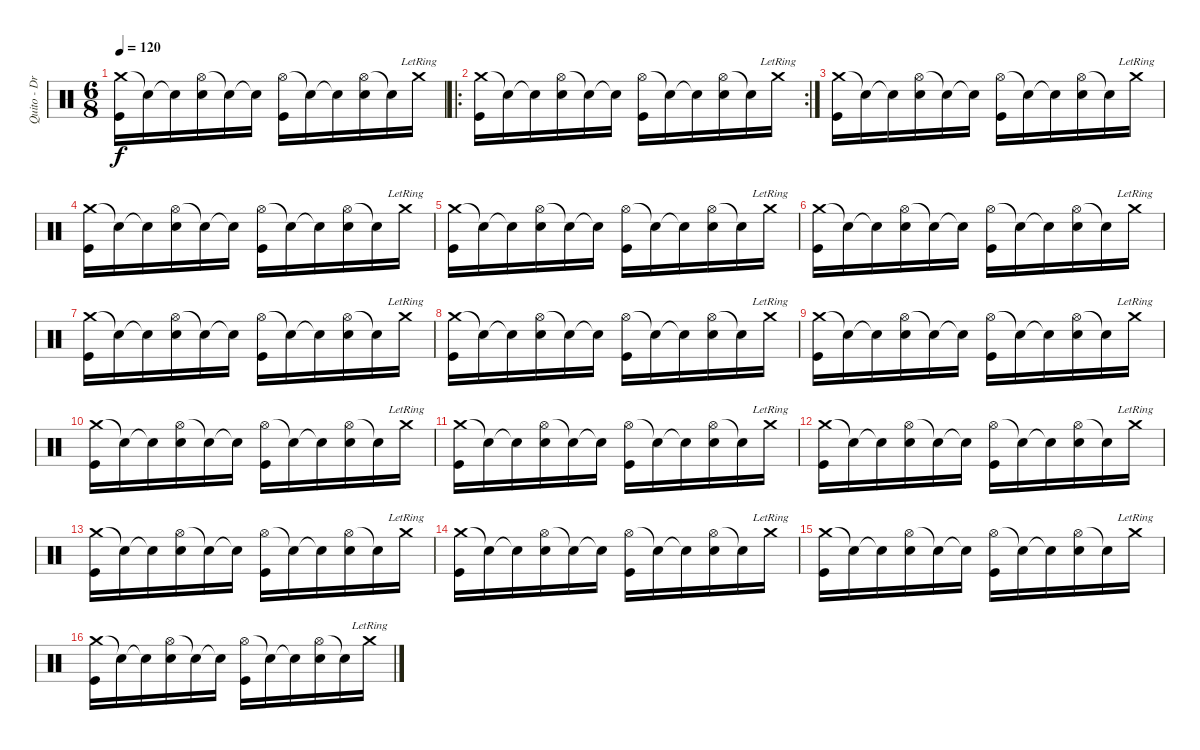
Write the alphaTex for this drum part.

\track ("Quito - Drums" "Quito - Dr") {instrument percussion}
\staff {score}
\articulation defaults
\ts (6 8)
\tempo 120
\clef neutral
\ks c
("Crash medium (hit)" "Kick (hit)").16{dy f} "Snare (hit)"{t}.16 "Snare (hit)"{t}.16 ("Hi-Hat (open)" "Snare (hit) 2").16 "Snare (hit)"{t}.16 "Snare (hit)"{t}.16 ("Hi-Hat (open)" "Kick (hit)").16 "Snare (hit)"{t}.16 "Snare (hit)"{t}.16 ("Hi-Hat (open)" "Snare (hit) 2").16 "Snare (hit)"{t}.16 "Crash medium (hit)"{lr}.16 |
\ro
\rc 2
("Crash medium (hit)" "Kick (hit)").16 "Snare (hit)"{t}.16 "Snare (hit)"{t}.16 ("Hi-Hat (open)" "Snare (hit) 2").16 "Snare (hit)"{t}.16 "Snare (hit)"{t}.16 ("Hi-Hat (open)" "Kick (hit)").16 "Snare (hit)"{t}.16 "Snare (hit)"{t}.16 ("Hi-Hat (open)" "Snare (hit) 2").16 "Snare (hit)"{t}.16 "Crash medium (hit)"{lr}.16 |
("Crash medium (hit)" "Kick (hit)").16 "Snare (hit)"{t}.16 "Snare (hit)"{t}.16 ("Hi-Hat (open)" "Snare (hit) 2").16 "Snare (hit)"{t}.16 "Snare (hit)"{t}.16 ("Hi-Hat (open)" "Kick (hit)").16 "Snare (hit)"{t}.16 "Snare (hit)"{t}.16 ("Hi-Hat (open)" "Snare (hit) 2").16 "Snare (hit)"{t}.16 "Crash medium (hit)"{lr}.16 |
("Crash medium (hit)" "Kick (hit)").16 "Snare (hit)"{t}.16 "Snare (hit)"{t}.16 ("Hi-Hat (open)" "Snare (hit) 2").16 "Snare (hit)"{t}.16 "Snare (hit)"{t}.16 ("Hi-Hat (open)" "Kick (hit)").16 "Snare (hit)"{t}.16 "Snare (hit)"{t}.16 ("Hi-Hat (open)" "Snare (hit) 2").16 "Snare (hit)"{t}.16 "Crash medium (hit)"{lr}.16 |
("Crash medium (hit)" "Kick (hit)").16 "Snare (hit)"{t}.16 "Snare (hit)"{t}.16 ("Hi-Hat (open)" "Snare (hit) 2").16 "Snare (hit)"{t}.16 "Snare (hit)"{t}.16 ("Hi-Hat (open)" "Kick (hit)").16 "Snare (hit)"{t}.16 "Snare (hit)"{t}.16 ("Hi-Hat (open)" "Snare (hit) 2").16 "Snare (hit)"{t}.16 "Crash medium (hit)"{lr}.16 |
("Crash medium (hit)" "Kick (hit)").16 "Snare (hit)"{t}.16 "Snare (hit)"{t}.16 ("Hi-Hat (open)" "Snare (hit) 2").16 "Snare (hit)"{t}.16 "Snare (hit)"{t}.16 ("Hi-Hat (open)" "Kick (hit)").16 "Snare (hit)"{t}.16 "Snare (hit)"{t}.16 ("Hi-Hat (open)" "Snare (hit) 2").16 "Snare (hit)"{t}.16 "Crash medium (hit)"{lr}.16 |
("Crash medium (hit)" "Kick (hit)").16 "Snare (hit)"{t}.16 "Snare (hit)"{t}.16 ("Hi-Hat (open)" "Snare (hit) 2").16 "Snare (hit)"{t}.16 "Snare (hit)"{t}.16 ("Hi-Hat (open)" "Kick (hit)").16 "Snare (hit)"{t}.16 "Snare (hit)"{t}.16 ("Hi-Hat (open)" "Snare (hit) 2").16 "Snare (hit)"{t}.16 "Crash medium (hit)"{lr}.16 |
("Crash medium (hit)" "Kick (hit)").16 "Snare (hit)"{t}.16 "Snare (hit)"{t}.16 ("Hi-Hat (open)" "Snare (hit) 2").16 "Snare (hit)"{t}.16 "Snare (hit)"{t}.16 ("Hi-Hat (open)" "Kick (hit)").16 "Snare (hit)"{t}.16 "Snare (hit)"{t}.16 ("Hi-Hat (open)" "Snare (hit) 2").16 "Snare (hit)"{t}.16 "Crash medium (hit)"{lr}.16 |
("Crash medium (hit)" "Kick (hit)").16 "Snare (hit)"{t}.16 "Snare (hit)"{t}.16 ("Hi-Hat (open)" "Snare (hit) 2").16 "Snare (hit)"{t}.16 "Snare (hit)"{t}.16 ("Hi-Hat (open)" "Kick (hit)").16 "Snare (hit)"{t}.16 "Snare (hit)"{t}.16 ("Hi-Hat (open)" "Snare (hit) 2").16 "Snare (hit)"{t}.16 "Crash medium (hit)"{lr}.16 |
("Crash medium (hit)" "Kick (hit)").16 "Snare (hit)"{t}.16 "Snare (hit)"{t}.16 ("Hi-Hat (open)" "Snare (hit) 2").16 "Snare (hit)"{t}.16 "Snare (hit)"{t}.16 ("Hi-Hat (open)" "Kick (hit)").16 "Snare (hit)"{t}.16 "Snare (hit)"{t}.16 ("Hi-Hat (open)" "Snare (hit) 2").16 "Snare (hit)"{t}.16 "Crash medium (hit)"{lr}.16 |
("Crash medium (hit)" "Kick (hit)").16 "Snare (hit)"{t}.16 "Snare (hit)"{t}.16 ("Hi-Hat (open)" "Snare (hit) 2").16 "Snare (hit)"{t}.16 "Snare (hit)"{t}.16 ("Hi-Hat (open)" "Kick (hit)").16 "Snare (hit)"{t}.16 "Snare (hit)"{t}.16 ("Hi-Hat (open)" "Snare (hit) 2").16 "Snare (hit)"{t}.16 "Crash medium (hit)"{lr}.16 |
("Crash medium (hit)" "Kick (hit)").16 "Snare (hit)"{t}.16 "Snare (hit)"{t}.16 ("Hi-Hat (open)" "Snare (hit) 2").16 "Snare (hit)"{t}.16 "Snare (hit)"{t}.16 ("Hi-Hat (open)" "Kick (hit)").16 "Snare (hit)"{t}.16 "Snare (hit)"{t}.16 ("Hi-Hat (open)" "Snare (hit) 2").16 "Snare (hit)"{t}.16 "Crash medium (hit)"{lr}.16 |
("Crash medium (hit)" "Kick (hit)").16 "Snare (hit)"{t}.16 "Snare (hit)"{t}.16 ("Hi-Hat (open)" "Snare (hit) 2").16 "Snare (hit)"{t}.16 "Snare (hit)"{t}.16 ("Hi-Hat (open)" "Kick (hit)").16 "Snare (hit)"{t}.16 "Snare (hit)"{t}.16 ("Hi-Hat (open)" "Snare (hit) 2").16 "Snare (hit)"{t}.16 "Crash medium (hit)"{lr}.16 |
("Crash medium (hit)" "Kick (hit)").16 "Snare (hit)"{t}.16 "Snare (hit)"{t}.16 ("Hi-Hat (open)" "Snare (hit) 2").16 "Snare (hit)"{t}.16 "Snare (hit)"{t}.16 ("Hi-Hat (open)" "Kick (hit)").16 "Snare (hit)"{t}.16 "Snare (hit)"{t}.16 ("Hi-Hat (open)" "Snare (hit) 2").16 "Snare (hit)"{t}.16 "Crash medium (hit)"{lr}.16 |
("Crash medium (hit)" "Kick (hit)").16 "Snare (hit)"{t}.16 "Snare (hit)"{t}.16 ("Hi-Hat (open)" "Snare (hit) 2").16 "Snare (hit)"{t}.16 "Snare (hit)"{t}.16 ("Hi-Hat (open)" "Kick (hit)").16 "Snare (hit)"{t}.16 "Snare (hit)"{t}.16 ("Hi-Hat (open)" "Snare (hit) 2").16 "Snare (hit)"{t}.16 "Crash medium (hit)"{lr}.16 |
("Crash medium (hit)" "Kick (hit)").16 "Snare (hit)"{t}.16 "Snare (hit)"{t}.16 ("Hi-Hat (open)" "Snare (hit) 2").16 "Snare (hit)"{t}.16 "Snare (hit)"{t}.16 ("Hi-Hat (open)" "Kick (hit)").16 "Snare (hit)"{t}.16 "Snare (hit)"{t}.16 ("Hi-Hat (open)" "Snare (hit) 2").16 "Snare (hit)"{t}.16 "Crash medium (hit)"{lr}.16
